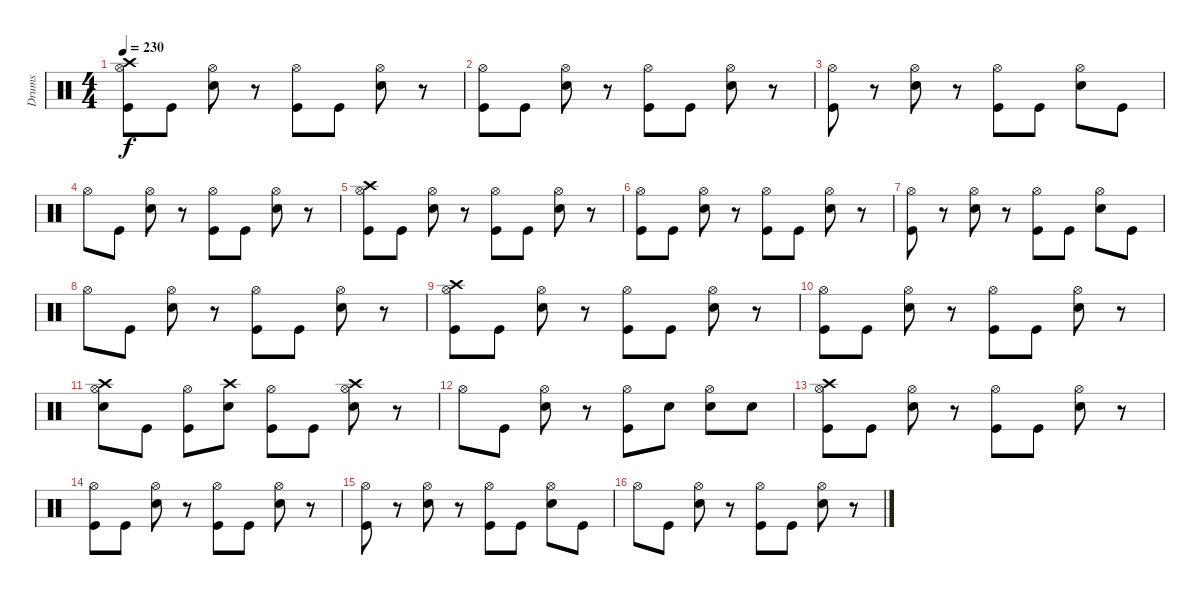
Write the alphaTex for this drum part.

\track ("Drums" "Drums") {instrument percussion}
\staff {score}
\articulation defaults
\ts (4 4)
\tempo 230
\clef neutral
\ks c
("Crash high (hit)" "Kick (hit)" "Hi-Hat (open)").8{dy f} "Kick (hit)".8 ("Electric Snare (hit)" "Hi-Hat (open)").8 r.8 ("Kick (hit)" "Hi-Hat (open)").8 "Kick (hit)".8 ("Electric Snare (hit)" "Hi-Hat (open)").8 r.8 |
("Kick (hit)" "Hi-Hat (open)").8 "Kick (hit)".8 ("Electric Snare (hit)" "Hi-Hat (open)").8 r.8 ("Kick (hit)" "Hi-Hat (open)").8 "Kick (hit)".8 ("Electric Snare (hit)" "Hi-Hat (open)").8 r.8 |
("Kick (hit)" "Hi-Hat (open)").8 r.8 ("Electric Snare (hit)" "Hi-Hat (open)").8 r.8 ("Kick (hit)" "Hi-Hat (open)").8 "Kick (hit)".8 ("Electric Snare (hit)" "Hi-Hat (open)").8 "Kick (hit)".8 |
"Hi-Hat (open)".8 "Kick (hit)".8 ("Electric Snare (hit)" "Hi-Hat (open)").8 r.8 ("Kick (hit)" "Hi-Hat (open)").8 "Kick (hit)".8 ("Electric Snare (hit)" "Hi-Hat (open)").8 r.8 |
("Crash high (hit)" "Kick (hit)" "Hi-Hat (open)").8 "Kick (hit)".8 ("Electric Snare (hit)" "Hi-Hat (open)").8 r.8 ("Kick (hit)" "Hi-Hat (open)").8 "Kick (hit)".8 ("Electric Snare (hit)" "Hi-Hat (open)").8 r.8 |
("Kick (hit)" "Hi-Hat (open)").8 "Kick (hit)".8 ("Electric Snare (hit)" "Hi-Hat (open)").8 r.8 ("Kick (hit)" "Hi-Hat (open)").8 "Kick (hit)".8 ("Electric Snare (hit)" "Hi-Hat (open)").8 r.8 |
("Kick (hit)" "Hi-Hat (open)").8 r.8 ("Electric Snare (hit)" "Hi-Hat (open)").8 r.8 ("Kick (hit)" "Hi-Hat (open)").8 "Kick (hit)".8 ("Electric Snare (hit)" "Hi-Hat (open)").8 "Kick (hit)".8 |
"Hi-Hat (open)".8 "Kick (hit)".8 ("Electric Snare (hit)" "Hi-Hat (open)").8 r.8 ("Kick (hit)" "Hi-Hat (open)").8 "Kick (hit)".8 ("Electric Snare (hit)" "Hi-Hat (open)").8 r.8 |
("Crash high (hit)" "Kick (hit)" "Hi-Hat (open)").8 "Kick (hit)".8 ("Electric Snare (hit)" "Hi-Hat (open)").8 r.8 ("Kick (hit)" "Hi-Hat (open)").8 "Kick (hit)".8 ("Electric Snare (hit)" "Hi-Hat (open)").8 r.8 |
("Kick (hit)" "Hi-Hat (open)").8 "Kick (hit)".8 ("Electric Snare (hit)" "Hi-Hat (open)").8 r.8 ("Kick (hit)" "Hi-Hat (open)").8 "Kick (hit)".8 ("Electric Snare (hit)" "Hi-Hat (open)").8 r.8 |
("Crash high (hit)" "Electric Snare (hit)" "Hi-Hat (open)").8 "Kick (hit)".8 ("Kick (hit)" "Hi-Hat (open)").8 ("Crash high (hit)" "Electric Snare (hit)").8 ("Kick (hit)" "Hi-Hat (open)").8 "Kick (hit)".8 ("Crash high (hit)" "Electric Snare (hit)" "Hi-Hat (open)").8 r.8 |
"Hi-Hat (open)".8 "Kick (hit)".8 ("Electric Snare (hit)" "Hi-Hat (open)").8 r.8 ("Kick (hit)" "Hi-Hat (open)").8 "Electric Snare (hit)".8 ("Electric Snare (hit)" "Hi-Hat (open)").8 "Electric Snare (hit)".8 |
("Crash high (hit)" "Kick (hit)" "Hi-Hat (open)").8 "Kick (hit)".8 ("Electric Snare (hit)" "Hi-Hat (open)").8 r.8 ("Kick (hit)" "Hi-Hat (open)").8 "Kick (hit)".8 ("Electric Snare (hit)" "Hi-Hat (open)").8 r.8 |
("Kick (hit)" "Hi-Hat (open)").8 "Kick (hit)".8 ("Electric Snare (hit)" "Hi-Hat (open)").8 r.8 ("Kick (hit)" "Hi-Hat (open)").8 "Kick (hit)".8 ("Electric Snare (hit)" "Hi-Hat (open)").8 r.8 |
("Kick (hit)" "Hi-Hat (open)").8 r.8 ("Electric Snare (hit)" "Hi-Hat (open)").8 r.8 ("Kick (hit)" "Hi-Hat (open)").8 "Kick (hit)".8 ("Electric Snare (hit)" "Hi-Hat (open)").8 "Kick (hit)".8 |
"Hi-Hat (open)".8 "Kick (hit)".8 ("Electric Snare (hit)" "Hi-Hat (open)").8 r.8 ("Kick (hit)" "Hi-Hat (open)").8 "Kick (hit)".8 ("Electric Snare (hit)" "Hi-Hat (open)").8 r.8
